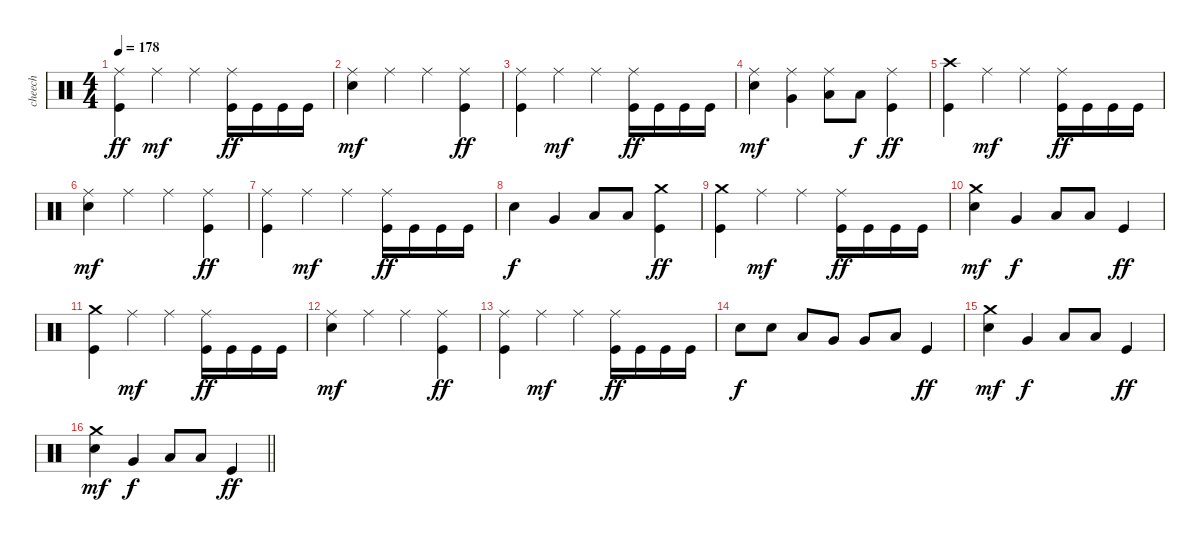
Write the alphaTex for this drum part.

\track ("cheech" "cheech") {solo instrument percussion}
\staff {score}
\articulation defaults
\ts (4 4)
\tempo 178
\clef neutral
\ks c
("Ride (middle)" "Kick (hit)").4{dy ff} "Ride (middle)".4{dy mf} "Ride (middle)".4 ("Ride (middle)" "Kick (hit)").16{dy ff} "Kick (hit)".16 "Kick (hit)".16 "Kick (hit)".16 |
("Ride (middle)" "Electric Snare (hit)").4{dy mf} "Ride (middle)".4 "Ride (middle)".4 ("Ride (middle)" "Kick (hit)").4{dy ff} |
("Ride (middle)" "Kick (hit)").4 "Ride (middle)".4{dy mf} "Ride (middle)".4 ("Ride (middle)" "Kick (hit)").16{dy ff} "Kick (hit)".16 "Kick (hit)".16 "Kick (hit)".16 |
("Ride (middle)" "Electric Snare (hit)").4{dy mf} ("Ride (middle)" "Very Low Tom (hit)").4 ("Ride (middle)" "Low Floor Tom (hit)").8 "Low Floor Tom (hit)".8{dy f} ("Ride (middle)" "Kick (hit)").4{dy ff} |
("Crash high (hit)" "Kick (hit)").4 "Ride (middle)".4{dy mf} "Ride (middle)".4 ("Ride (middle)" "Kick (hit)").16{dy ff} "Kick (hit)".16 "Kick (hit)".16 "Kick (hit)".16 |
("Ride (middle)" "Electric Snare (hit)").4{dy mf} "Ride (middle)".4 "Ride (middle)".4 ("Ride (middle)" "Kick (hit)").4{dy ff} |
("Ride (middle)" "Kick (hit)").4 "Ride (middle)".4{dy mf} "Ride (middle)".4 ("Ride (middle)" "Kick (hit)").16{dy ff} "Kick (hit)".16 "Kick (hit)".16 "Kick (hit)".16 |
"Electric Snare (hit)".4{dy f} "Very Low Tom (hit)".4 "Low Floor Tom (hit)".8 "Low Floor Tom (hit)".8 ("Crash medium (hit)" "Kick (hit)").4{dy ff} |
("Crash medium (hit)" "Kick (hit)").4 "Ride (middle)".4{dy mf} "Ride (middle)".4 ("Ride (middle)" "Kick (hit)").16{dy ff} "Kick (hit)".16 "Kick (hit)".16 "Kick (hit)".16 |
("Crash medium (hit)" "Electric Snare (hit)").4{dy mf} "Very Low Tom (hit)".4{dy f} "Low Floor Tom (hit)".8 "Low Floor Tom (hit)".8 "Kick (hit)".4{dy ff} |
("Crash medium (hit)" "Kick (hit)").4 "Ride (middle)".4{dy mf} "Ride (middle)".4 ("Ride (middle)" "Kick (hit)").16{dy ff} "Kick (hit)".16 "Kick (hit)".16 "Kick (hit)".16 |
("Ride (middle)" "Electric Snare (hit)").4{dy mf} "Ride (middle)".4 "Ride (middle)".4 ("Ride (middle)" "Kick (hit)").4{dy ff} |
("Ride (middle)" "Kick (hit)").4 "Ride (middle)".4{dy mf} "Ride (middle)".4 ("Ride (middle)" "Kick (hit)").16{dy ff} "Kick (hit)".16 "Kick (hit)".16 "Kick (hit)".16 |
"Electric Snare (hit)".8{dy f} "Electric Snare (hit)".8 "Low Tom (hit)".8 "Very Low Tom (hit)".8 "Very Low Tom (hit)".8 "Low Floor Tom (hit)".8 "Kick (hit)".4{dy ff} |
("Crash medium (hit)" "Electric Snare (hit)").4{dy mf} "Very Low Tom (hit)".4{dy f} "Low Floor Tom (hit)".8 "Low Floor Tom (hit)".8 "Kick (hit)".4{dy ff} |
\barLineRight lightlight
("Crash medium (hit)" "Electric Snare (hit)").4{dy mf} "Very Low Tom (hit)".4{dy f} "Low Floor Tom (hit)".8 "Low Floor Tom (hit)".8 "Kick (hit)".4{dy ff}
